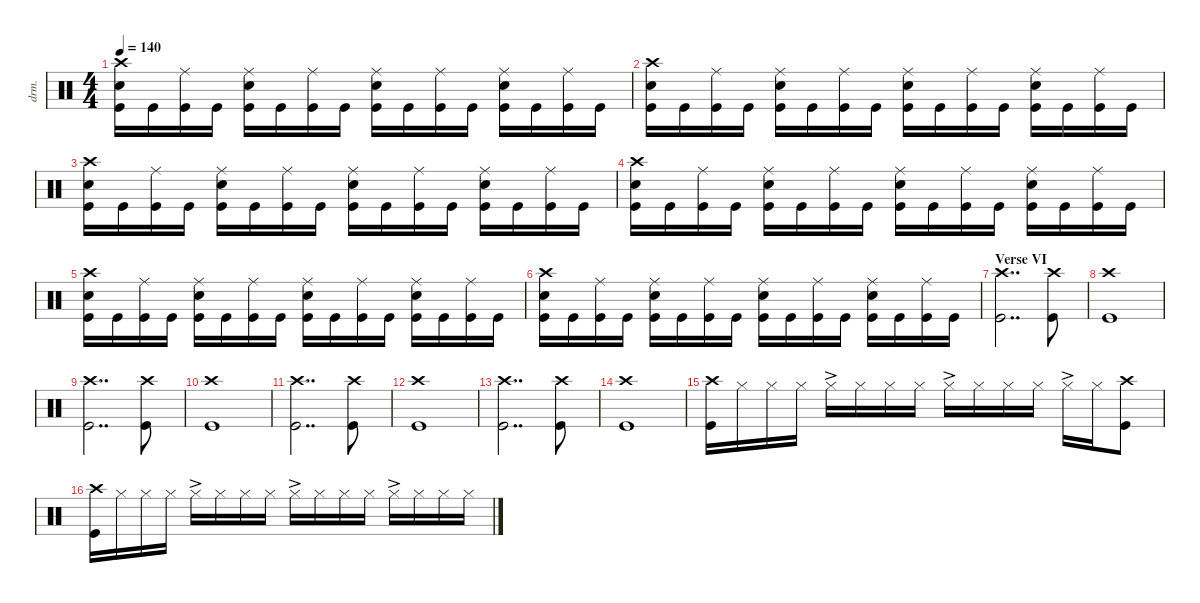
\defaultSystemsLayout 4
\hideDynamics
\bracketExtendMode nobrackets
\otherSystemsTrackNameOrientation horizontal
\track ("Drums" "drm.") {multiBarRest instrument percussion}
\staff
\articulation defaults
\ts (4 4)
\tempo 140
\clef neutral
\ks c
("Crash high (hit)" "Snare (hit) 2" "Kick (hit)").16{dy f} "Kick (hit)".16 ("Kick (hit)" "Ride (middle)").16 "Kick (hit)".16 ("Kick (hit)" "Ride (middle)" "Snare (hit) 2").16 "Kick (hit)".16 ("Kick (hit)" "Ride (middle)").16 "Kick (hit)".16 ("Kick (hit)" "Ride (middle)" "Snare (hit) 2").16 "Kick (hit)".16 ("Kick (hit)" "Ride (middle)").16 "Kick (hit)".16 ("Kick (hit)" "Ride (middle)" "Snare (hit) 2").16 "Kick (hit)".16 ("Kick (hit)" "Ride (middle)").16 "Kick (hit)".16 |
("Crash high (hit)" "Snare (hit) 2" "Kick (hit)").16 "Kick (hit)".16 ("Kick (hit)" "Ride (middle)").16 "Kick (hit)".16 ("Kick (hit)" "Ride (middle)" "Snare (hit) 2").16 "Kick (hit)".16 ("Kick (hit)" "Ride (middle)").16 "Kick (hit)".16 ("Kick (hit)" "Ride (middle)" "Snare (hit) 2").16 "Kick (hit)".16 ("Kick (hit)" "Ride (middle)").16 "Kick (hit)".16 ("Kick (hit)" "Ride (middle)" "Snare (hit) 2").16 "Kick (hit)".16 ("Kick (hit)" "Ride (middle)").16 "Kick (hit)".16 |
("Crash high (hit)" "Snare (hit) 2" "Kick (hit)").16 "Kick (hit)".16 ("Kick (hit)" "Ride (middle)").16 "Kick (hit)".16 ("Kick (hit)" "Ride (middle)" "Snare (hit) 2").16 "Kick (hit)".16 ("Kick (hit)" "Ride (middle)").16 "Kick (hit)".16 ("Kick (hit)" "Ride (middle)" "Snare (hit) 2").16 "Kick (hit)".16 ("Kick (hit)" "Ride (middle)").16 "Kick (hit)".16 ("Kick (hit)" "Ride (middle)" "Snare (hit) 2").16 "Kick (hit)".16 ("Kick (hit)" "Ride (middle)").16 "Kick (hit)".16 |
("Crash high (hit)" "Snare (hit) 2" "Kick (hit)").16 "Kick (hit)".16 ("Kick (hit)" "Ride (middle)").16 "Kick (hit)".16 ("Kick (hit)" "Ride (middle)" "Snare (hit) 2").16 "Kick (hit)".16 ("Kick (hit)" "Ride (middle)").16 "Kick (hit)".16 ("Kick (hit)" "Ride (middle)" "Snare (hit) 2").16 "Kick (hit)".16 ("Kick (hit)" "Ride (middle)").16 "Kick (hit)".16 ("Kick (hit)" "Ride (middle)" "Snare (hit) 2").16 "Kick (hit)".16 ("Kick (hit)" "Ride (middle)").16 "Kick (hit)".16 |
("Crash high (hit)" "Snare (hit) 2" "Kick (hit)").16 "Kick (hit)".16 ("Kick (hit)" "Ride (middle)").16 "Kick (hit)".16 ("Kick (hit)" "Ride (middle)" "Snare (hit) 2").16 "Kick (hit)".16 ("Kick (hit)" "Ride (middle)").16 "Kick (hit)".16 ("Kick (hit)" "Ride (middle)" "Snare (hit) 2").16 "Kick (hit)".16 ("Kick (hit)" "Ride (middle)").16 "Kick (hit)".16 ("Kick (hit)" "Ride (middle)" "Snare (hit) 2").16 "Kick (hit)".16 ("Kick (hit)" "Ride (middle)").16 "Kick (hit)".16 |
("Crash high (hit)" "Snare (hit) 2" "Kick (hit)").16 "Kick (hit)".16 ("Kick (hit)" "Ride (middle)").16 "Kick (hit)".16 ("Kick (hit)" "Ride (middle)" "Snare (hit) 2").16 "Kick (hit)".16 ("Kick (hit)" "Ride (middle)").16 "Kick (hit)".16 ("Kick (hit)" "Ride (middle)" "Snare (hit) 2").16 "Kick (hit)".16 ("Kick (hit)" "Ride (middle)").16 "Kick (hit)".16 ("Kick (hit)" "Ride (middle)" "Snare (hit) 2").16 "Kick (hit)".16 ("Kick (hit)" "Ride (middle)").16 "Kick (hit)".16 |
\section ("" "Verse VI")
("Kick (hit)" "Crash high (hit)").2{dd} ("Kick (hit)" "Crash high (hit)").8 |
("Kick (hit)" "Crash high (hit)").1 |
("Kick (hit)" "Crash high (hit)").2{dd} ("Kick (hit)" "Crash high (hit)").8 |
("Kick (hit)" "Crash high (hit)").1 |
("Kick (hit)" "Crash high (hit)").2{dd} ("Kick (hit)" "Crash high (hit)").8 |
("Kick (hit)" "Crash high (hit)").1 |
("Kick (hit)" "Crash high (hit)").2{dd} ("Kick (hit)" "Crash high (hit)").8 |
("Kick (hit)" "Crash high (hit)").1 |
("Kick (hit)" "Crash high (hit)").16 "Hi-Hat (closed)".16{dy mf} "Hi-Hat (closed)".16 "Hi-Hat (closed)".16 "Hi-Hat (closed)"{ac}.16 "Hi-Hat (closed)".16 "Hi-Hat (closed)".16 "Hi-Hat (closed)".16 "Hi-Hat (closed)"{ac}.16 "Hi-Hat (closed)".16 "Hi-Hat (closed)".16 "Hi-Hat (closed)".16 "Hi-Hat (closed)"{ac}.16 "Hi-Hat (closed)".16 ("Kick (hit)" "Crash high (hit)").8{dy f} |
("Kick (hit)" "Crash high (hit)").16 "Hi-Hat (closed)".16{dy mf} "Hi-Hat (closed)".16 "Hi-Hat (closed)".16 "Hi-Hat (closed)"{ac}.16 "Hi-Hat (closed)".16 "Hi-Hat (closed)".16 "Hi-Hat (closed)".16 "Hi-Hat (closed)"{ac}.16 "Hi-Hat (closed)".16 "Hi-Hat (closed)".16 "Hi-Hat (closed)".16 "Hi-Hat (closed)"{ac}.16 "Hi-Hat (closed)".16 "Hi-Hat (closed)".16 "Hi-Hat (closed)".16
